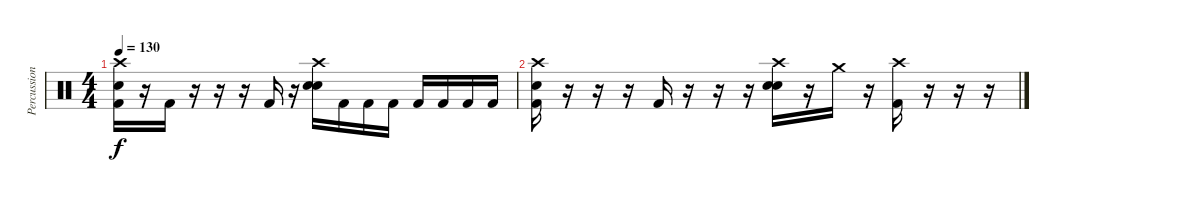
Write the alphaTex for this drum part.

\track ("Percussion" "Percussion") {instrument percussion}
\staff {score}
\articulation defaults
\ts (4 4)
\tempo 130
\clef neutral
\ks c
("Crash high (hit)" "Snare (hit) 2" "Kick (hit) 2").16{dy f} r.16 "Kick (hit) 2".16 r.16 r.16 r.16 "Kick (hit) 2".16 r.16 ("Crash high (hit)" "Snare (hit) 2" "Snare (hit) 2").16 "Kick (hit) 2".16 "Kick (hit) 2".16 "Kick (hit) 2".16 "Kick (hit) 2".16 "Kick (hit) 2".16 "Kick (hit) 2".16 "Kick (hit) 2".16 |
("Crash high (hit)" "Snare (hit) 2" "Kick (hit) 2").16 r.16 r.16 r.16 "Kick (hit) 2".16 r.16 r.16 r.16 ("Crash high (hit)" "Snare (hit) 2" "Snare (hit) 2").16 r.16 "Crash medium (hit)".16 r.16 ("Crash high (hit)" "Kick (hit) 2").16 r.16 r.16 r.16
